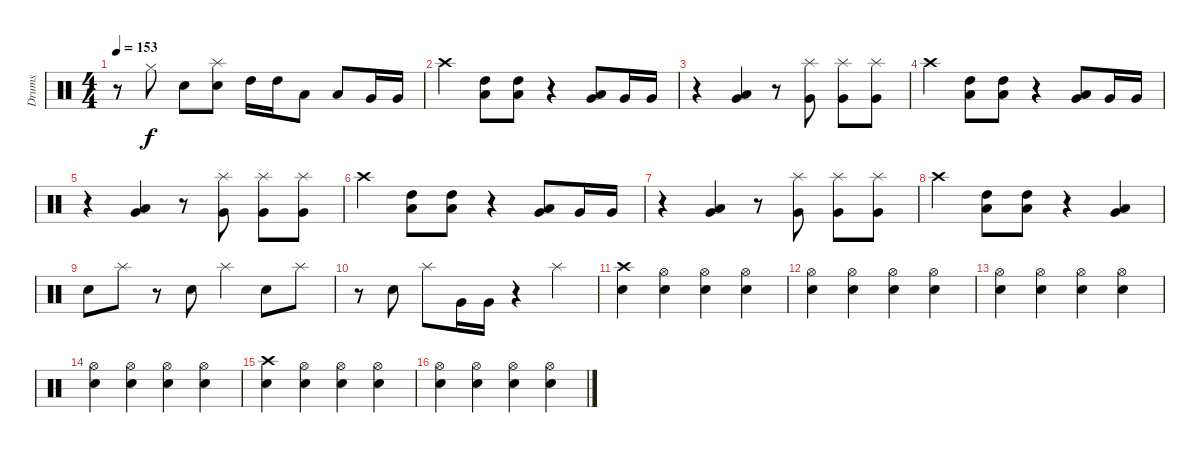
\track ("Drums" "Drums") {instrument percussion}
\staff {score}
\articulation defaults
\ts (4 4)
\tempo 153
\clef neutral
\ks c
r.8{dy f} "Hi-Hat (closed)".8 "Snare (hit) 2".8 ("Splash (hit)" "Snare (hit) 2").8 "High Tom (hit)".16 "High Tom (hit)".16 "Low Tom (hit)".8 "Low Tom (hit)".8 "Very Low Tom (hit)".16 "Very Low Tom (hit)".16 |
"Crash high (hit)".4 ("High Tom (hit)" "Low Tom (hit)").8 ("High Tom (hit)" "Low Tom (hit)").8 r.4 ("Low Tom (hit)" "Very Low Tom (hit)").8 "Very Low Tom (hit)".16 "Very Low Tom (hit)".16 |
r.4 ("Low Tom (hit)" "Very Low Tom (hit)").4 r.8 ("Splash (hit)" "Very Low Tom (hit)").8 ("Splash (hit)" "Very Low Tom (hit)").8 ("Splash (hit)" "Very Low Tom (hit)").8 |
"Crash high (hit)".4 ("High Tom (hit)" "Low Tom (hit)").8 ("High Tom (hit)" "Low Tom (hit)").8 r.4 ("Low Tom (hit)" "Very Low Tom (hit)").8 "Very Low Tom (hit)".16 "Very Low Tom (hit)".16 |
r.4 ("Low Tom (hit)" "Very Low Tom (hit)").4 r.8 ("Splash (hit)" "Very Low Tom (hit)").8 ("Splash (hit)" "Very Low Tom (hit)").8 ("Splash (hit)" "Very Low Tom (hit)").8 |
"Crash high (hit)".4 ("High Tom (hit)" "Low Tom (hit)").8 ("High Tom (hit)" "Low Tom (hit)").8 r.4 ("Low Tom (hit)" "Very Low Tom (hit)").8 "Very Low Tom (hit)".16 "Very Low Tom (hit)".16 |
r.4 ("Low Tom (hit)" "Very Low Tom (hit)").4 r.8 ("Splash (hit)" "Very Low Tom (hit)").8 ("Splash (hit)" "Very Low Tom (hit)").8 ("Splash (hit)" "Very Low Tom (hit)").8 |
"Crash high (hit)".4 ("High Tom (hit)" "Low Tom (hit)").8 ("High Tom (hit)" "Low Tom (hit)").8 r.4 ("Low Tom (hit)" "Very Low Tom (hit)").4 |
"Snare (hit) 2".8 "Splash (hit)".8 r.8 "Snare (hit) 2".8 "Splash (hit)".4 "Snare (hit) 2".8 "Splash (hit)".8 |
r.8 "Snare (hit) 2".8 "Splash (hit)".8 "Very Low Tom (hit)".16 "Very Low Tom (hit)".16 r.4 "Splash (hit)".4 |
("Crash high (hit)" "Snare (hit) 2").4 ("Hi-Hat (open)" "Snare (hit) 2").4 ("Hi-Hat (open)" "Snare (hit) 2").4 ("Hi-Hat (open)" "Snare (hit) 2").4 |
("Hi-Hat (open)" "Snare (hit) 2").4 ("Hi-Hat (open)" "Snare (hit) 2").4 ("Hi-Hat (open)" "Snare (hit) 2").4 ("Hi-Hat (open)" "Snare (hit) 2").4 |
("Hi-Hat (open)" "Snare (hit) 2").4 ("Hi-Hat (open)" "Snare (hit) 2").4 ("Hi-Hat (open)" "Snare (hit) 2").4 ("Hi-Hat (open)" "Snare (hit) 2").4 |
("Hi-Hat (open)" "Snare (hit) 2").4 ("Hi-Hat (open)" "Snare (hit) 2").4 ("Hi-Hat (open)" "Snare (hit) 2").4 ("Hi-Hat (open)" "Snare (hit) 2").4 |
("Crash high (hit)" "Snare (hit) 2").4 ("Hi-Hat (open)" "Snare (hit) 2").4 ("Hi-Hat (open)" "Snare (hit) 2").4 ("Hi-Hat (open)" "Snare (hit) 2").4 |
("Hi-Hat (open)" "Snare (hit) 2").4 ("Hi-Hat (open)" "Snare (hit) 2").4 ("Hi-Hat (open)" "Snare (hit) 2").4 ("Hi-Hat (open)" "Snare (hit) 2").4
